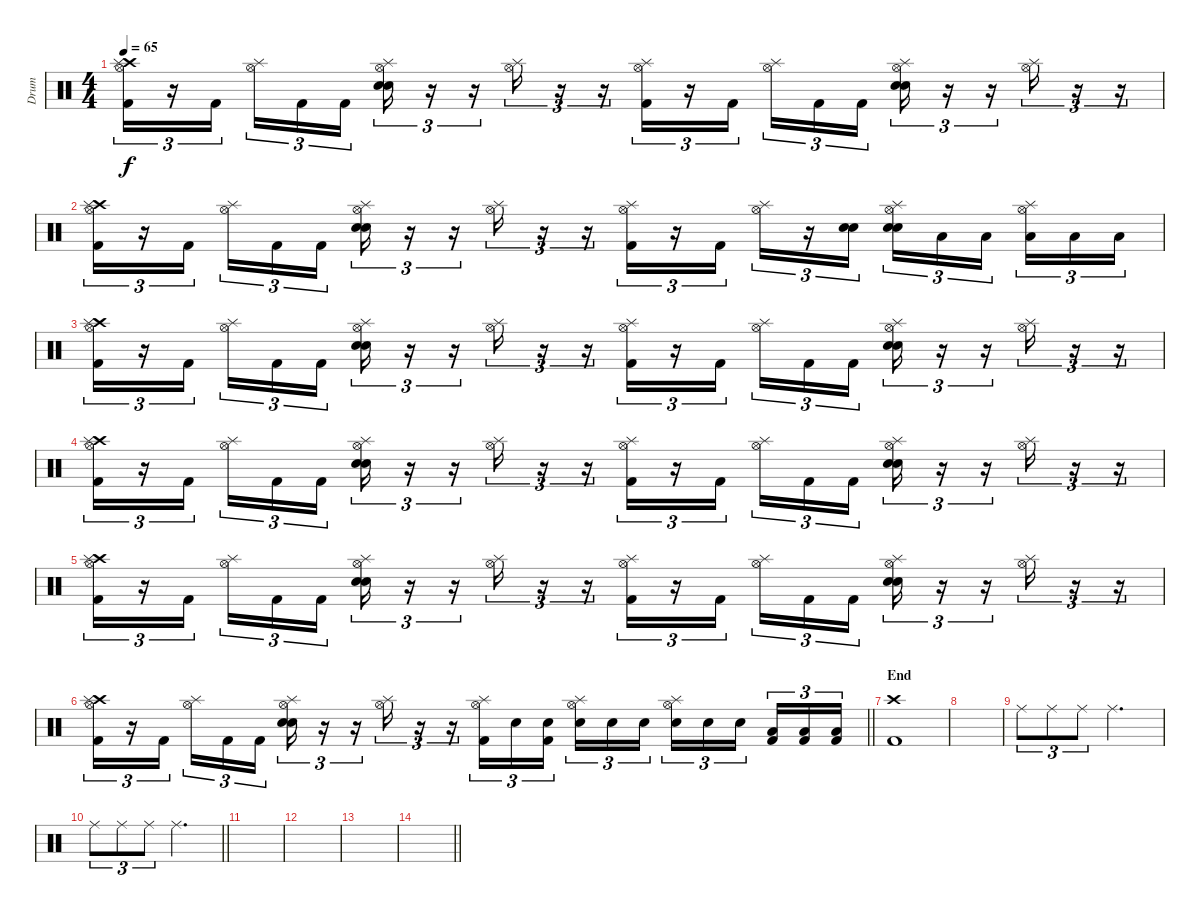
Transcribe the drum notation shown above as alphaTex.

\track ("Drum" "Drum") {instrument percussion}
\staff {score}
\articulation defaults
\ts (4 4)
\tempo 65
\clef neutral
\ks c
("Hi-Hat (open)" "Crash high (hit)" "Kick (hit) 2" "Splash (hit)").16{tu (3 2) dy f} r.16{tu (3 2)} "Kick (hit) 2".16{tu (3 2) beam splitsecondary} ("Hi-Hat (open)" "Splash (hit)").16{tu (3 2)} "Kick (hit) 2".16{tu (3 2)} "Kick (hit) 2".16{tu (3 2)} ("Hi-Hat (open)" "Electric Snare (hit)" "Electric Snare (hit)" "Splash (hit)").16{tu (3 2)} r.16{tu (3 2)} r.16{tu (3 2)} ("Hi-Hat (open)" "Splash (hit)").16{tu (3 2)} r.16{tu (3 2)} r.16{tu (3 2)} ("Hi-Hat (open)" "Kick (hit) 2" "Splash (hit)").16{tu (3 2)} r.16{tu (3 2)} "Kick (hit) 2".16{tu (3 2) beam splitsecondary} ("Hi-Hat (open)" "Splash (hit)").16{tu (3 2)} "Kick (hit) 2".16{tu (3 2)} "Kick (hit) 2".16{tu (3 2)} ("Hi-Hat (open)" "Electric Snare (hit)" "Electric Snare (hit)" "Splash (hit)").16{tu (3 2)} r.16{tu (3 2)} r.16{tu (3 2)} ("Hi-Hat (open)" "Splash (hit)").16{tu (3 2)} r.16{tu (3 2)} r.16{tu (3 2)} |
("Hi-Hat (open)" "Crash high (hit)" "Kick (hit) 2" "Splash (hit)").16{tu (3 2)} r.16{tu (3 2)} "Kick (hit) 2".16{tu (3 2) beam splitsecondary} ("Hi-Hat (open)" "Splash (hit)").16{tu (3 2)} "Kick (hit) 2".16{tu (3 2)} "Kick (hit) 2".16{tu (3 2)} ("Hi-Hat (open)" "Electric Snare (hit)" "Electric Snare (hit)" "Splash (hit)").16{tu (3 2)} r.16{tu (3 2)} r.16{tu (3 2)} ("Hi-Hat (open)" "Splash (hit)").16{tu (3 2)} r.16{tu (3 2)} r.16{tu (3 2)} ("Hi-Hat (open)" "Kick (hit) 2" "Splash (hit)").16{tu (3 2)} r.16{tu (3 2)} "Kick (hit) 2".16{tu (3 2)} ("Hi-Hat (open)" "Splash (hit)").16{tu (3 2)} r.16{tu (3 2)} ("Electric Snare (hit)" "Electric Snare (hit)").16{tu (3 2)} ("Hi-Hat (open)" "Electric Snare (hit)" "Electric Snare (hit)" "Splash (hit)").16{tu (3 2)} "Low Tom (hit)".16{tu (3 2)} "Low Tom (hit)".16{tu (3 2) beam splitsecondary} ("Hi-Hat (open)" "Low Tom (hit)" "Splash (hit)").16{tu (3 2)} "Low Tom (hit)".16{tu (3 2)} "Low Tom (hit)".16{tu (3 2)} |
("Hi-Hat (open)" "Crash high (hit)" "Kick (hit) 2" "Splash (hit)").16{tu (3 2)} r.16{tu (3 2)} "Kick (hit) 2".16{tu (3 2) beam splitsecondary} ("Hi-Hat (open)" "Splash (hit)").16{tu (3 2)} "Kick (hit) 2".16{tu (3 2)} "Kick (hit) 2".16{tu (3 2)} ("Hi-Hat (open)" "Electric Snare (hit)" "Electric Snare (hit)" "Splash (hit)").16{tu (3 2)} r.16{tu (3 2)} r.16{tu (3 2)} ("Hi-Hat (open)" "Splash (hit)").16{tu (3 2)} r.16{tu (3 2)} r.16{tu (3 2)} ("Hi-Hat (open)" "Kick (hit) 2" "Splash (hit)").16{tu (3 2)} r.16{tu (3 2)} "Kick (hit) 2".16{tu (3 2) beam splitsecondary} ("Hi-Hat (open)" "Splash (hit)").16{tu (3 2)} "Kick (hit) 2".16{tu (3 2)} "Kick (hit) 2".16{tu (3 2)} ("Hi-Hat (open)" "Electric Snare (hit)" "Electric Snare (hit)" "Splash (hit)").16{tu (3 2)} r.16{tu (3 2)} r.16{tu (3 2)} ("Hi-Hat (open)" "Splash (hit)").16{tu (3 2)} r.16{tu (3 2)} r.16{tu (3 2)} |
("Hi-Hat (open)" "Crash high (hit)" "Kick (hit) 2" "Splash (hit)").16{tu (3 2)} r.16{tu (3 2)} "Kick (hit) 2".16{tu (3 2) beam splitsecondary} ("Hi-Hat (open)" "Splash (hit)").16{tu (3 2)} "Kick (hit) 2".16{tu (3 2)} "Kick (hit) 2".16{tu (3 2)} ("Hi-Hat (open)" "Electric Snare (hit)" "Electric Snare (hit)" "Splash (hit)").16{tu (3 2)} r.16{tu (3 2)} r.16{tu (3 2)} ("Hi-Hat (open)" "Splash (hit)").16{tu (3 2)} r.16{tu (3 2)} r.16{tu (3 2)} ("Hi-Hat (open)" "Kick (hit) 2" "Splash (hit)").16{tu (3 2)} r.16{tu (3 2)} "Kick (hit) 2".16{tu (3 2) beam splitsecondary} ("Hi-Hat (open)" "Splash (hit)").16{tu (3 2)} "Kick (hit) 2".16{tu (3 2)} "Kick (hit) 2".16{tu (3 2)} ("Hi-Hat (open)" "Electric Snare (hit)" "Electric Snare (hit)" "Splash (hit)").16{tu (3 2)} r.16{tu (3 2)} r.16{tu (3 2)} ("Hi-Hat (open)" "Splash (hit)").16{tu (3 2)} r.16{tu (3 2)} r.16{tu (3 2)} |
("Hi-Hat (open)" "Crash high (hit)" "Kick (hit) 2" "Splash (hit)").16{tu (3 2)} r.16{tu (3 2)} "Kick (hit) 2".16{tu (3 2) beam splitsecondary} ("Hi-Hat (open)" "Splash (hit)").16{tu (3 2)} "Kick (hit) 2".16{tu (3 2)} "Kick (hit) 2".16{tu (3 2)} ("Hi-Hat (open)" "Electric Snare (hit)" "Electric Snare (hit)" "Splash (hit)").16{tu (3 2)} r.16{tu (3 2)} r.16{tu (3 2)} ("Hi-Hat (open)" "Splash (hit)").16{tu (3 2)} r.16{tu (3 2)} r.16{tu (3 2)} ("Hi-Hat (open)" "Kick (hit) 2" "Splash (hit)").16{tu (3 2)} r.16{tu (3 2)} "Kick (hit) 2".16{tu (3 2) beam splitsecondary} ("Hi-Hat (open)" "Splash (hit)").16{tu (3 2)} "Kick (hit) 2".16{tu (3 2)} "Kick (hit) 2".16{tu (3 2)} ("Hi-Hat (open)" "Electric Snare (hit)" "Electric Snare (hit)" "Splash (hit)").16{tu (3 2)} r.16{tu (3 2)} r.16{tu (3 2)} ("Hi-Hat (open)" "Splash (hit)").16{tu (3 2)} r.16{tu (3 2)} r.16{tu (3 2)} |
\barLineRight lightlight
("Hi-Hat (open)" "Crash high (hit)" "Kick (hit) 2" "Splash (hit)").16{tu (3 2)} r.16{tu (3 2)} "Kick (hit) 2".16{tu (3 2) beam splitsecondary} ("Hi-Hat (open)" "Splash (hit)").16{tu (3 2)} "Kick (hit) 2".16{tu (3 2)} "Kick (hit) 2".16{tu (3 2)} ("Hi-Hat (open)" "Electric Snare (hit)" "Electric Snare (hit)" "Splash (hit)").16{tu (3 2)} r.16{tu (3 2)} r.16{tu (3 2)} ("Hi-Hat (open)" "Splash (hit)").16{tu (3 2)} r.16{tu (3 2)} r.16{tu (3 2)} ("Hi-Hat (open)" "Kick (hit) 2" "Splash (hit)").16{tu (3 2)} "Electric Snare (hit)".16{tu (3 2)} ("Electric Snare (hit)" "Kick (hit) 2").16{tu (3 2) beam splitsecondary} ("Hi-Hat (open)" "Electric Snare (hit)" "Splash (hit)").16{tu (3 2)} "Electric Snare (hit)".16{tu (3 2)} "Electric Snare (hit)".16{tu (3 2)} ("Hi-Hat (open)" "Electric Snare (hit)" "Splash (hit)").16{tu (3 2)} "Electric Snare (hit)".16{tu (3 2)} "Electric Snare (hit)".16{tu (3 2) beam splitsecondary} ("Low Tom (hit)" "Kick (hit) 2").16{tu (3 2)} ("Low Tom (hit)" "Kick (hit) 2").16{tu (3 2)} ("Low Tom (hit)" "Kick (hit) 2").16{tu (3 2)} |
\section ("" "End")
("Crash high (hit)" "Kick (hit) 2").1 |
|
"Ride (middle)".8{tu (3 2)} "Ride (middle)".8{tu (3 2)} "Ride (middle)".8{tu (3 2)} "Ride (middle)".2{d} |
\barLineRight lightlight "Ride (middle)".8{tu (3 2)} "Ride (middle)".8{tu (3 2)} "Ride (middle)".8{tu (3 2)} "Ride (middle)".2{d}
|
|
|
|
\barLineRight lightlight
